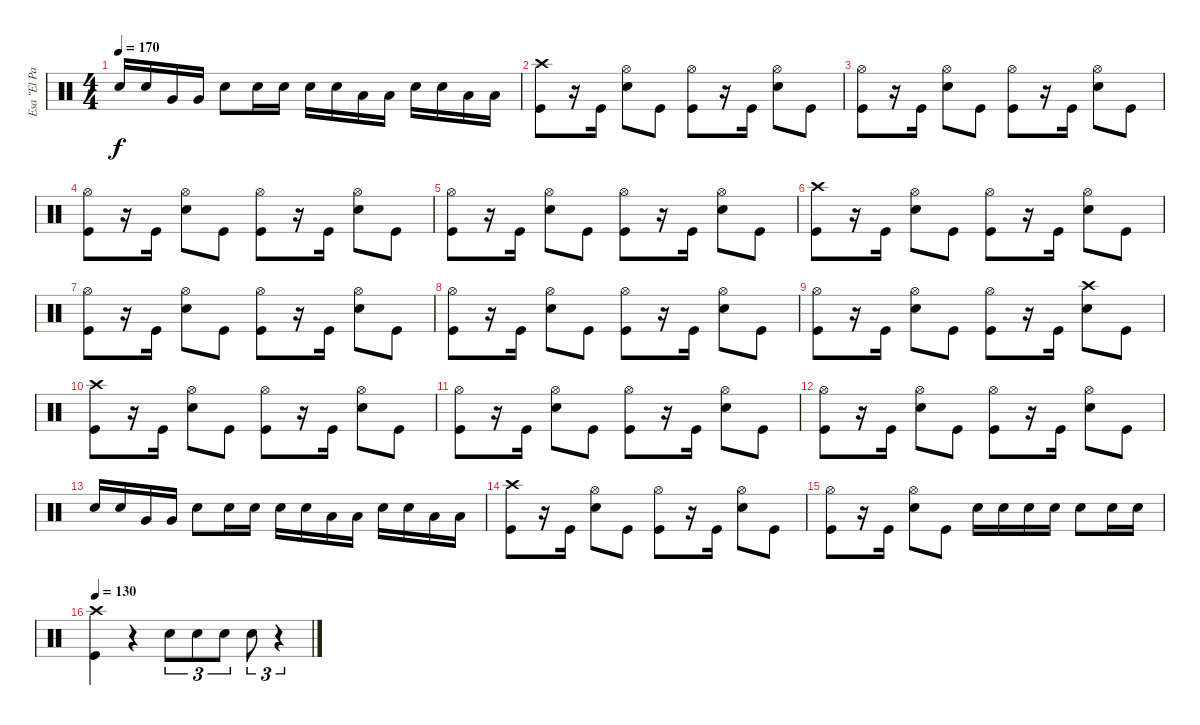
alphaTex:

\track ("Esa \"El Pasaderia\" Palosaari" "Esa \"El Pa") {instrument percussion}
\staff {score}
\articulation defaults
\ts (4 4)
\tempo 170
\clef neutral
\ks c "Snare (hit) 2".16{dy f} "Snare (hit) 2".16 "Very Low Tom (hit)".16 "Very Low Tom (hit)".16 "Snare (hit) 2".8 "Snare (hit) 2".16 "Snare (hit) 2".16 "Snare (hit) 2".16 "Snare (hit) 2".16 "Low Tom (hit)".16 "Low Tom (hit)".16 "Snare (hit) 2".16 "Snare (hit) 2".16 "Low Tom (hit)".16 "Low Tom (hit)".16
|
("Crash high (hit)" "Kick (hit)").8 r.16 "Kick (hit)".16 ("Hi-Hat (open)" "Snare (hit) 2").8 "Kick (hit)".8 ("Hi-Hat (open)" "Kick (hit)").8 r.16 "Kick (hit)".16 ("Hi-Hat (open)" "Snare (hit) 2").8 "Kick (hit)".8 |
("Hi-Hat (open)" "Kick (hit)").8 r.16 "Kick (hit)".16 ("Hi-Hat (open)" "Snare (hit) 2").8 "Kick (hit)".8 ("Hi-Hat (open)" "Kick (hit)").8 r.16 "Kick (hit)".16 ("Hi-Hat (open)" "Snare (hit) 2").8 "Kick (hit)".8 |
("Hi-Hat (open)" "Kick (hit)").8 r.16 "Kick (hit)".16 ("Hi-Hat (open)" "Snare (hit) 2").8 "Kick (hit)".8 ("Hi-Hat (open)" "Kick (hit)").8 r.16 "Kick (hit)".16 ("Hi-Hat (open)" "Snare (hit) 2").8 "Kick (hit)".8 |
("Hi-Hat (open)" "Kick (hit)").8 r.16 "Kick (hit)".16 ("Hi-Hat (open)" "Snare (hit) 2").8 "Kick (hit)".8 ("Hi-Hat (open)" "Kick (hit)").8 r.16 "Kick (hit)".16 ("Hi-Hat (open)" "Snare (hit) 2").8 "Kick (hit)".8 |
("Crash high (hit)" "Kick (hit)").8 r.16 "Kick (hit)".16 ("Hi-Hat (open)" "Snare (hit) 2").8 "Kick (hit)".8 ("Hi-Hat (open)" "Kick (hit)").8 r.16 "Kick (hit)".16 ("Hi-Hat (open)" "Snare (hit) 2").8 "Kick (hit)".8 |
("Hi-Hat (open)" "Kick (hit)").8 r.16 "Kick (hit)".16 ("Hi-Hat (open)" "Snare (hit) 2").8 "Kick (hit)".8 ("Hi-Hat (open)" "Kick (hit)").8 r.16 "Kick (hit)".16 ("Hi-Hat (open)" "Snare (hit) 2").8 "Kick (hit)".8 |
("Hi-Hat (open)" "Kick (hit)").8 r.16 "Kick (hit)".16 ("Hi-Hat (open)" "Snare (hit) 2").8 "Kick (hit)".8 ("Hi-Hat (open)" "Kick (hit)").8 r.16 "Kick (hit)".16 ("Hi-Hat (open)" "Snare (hit) 2").8 "Kick (hit)".8 |
("Hi-Hat (open)" "Kick (hit)").8 r.16 "Kick (hit)".16 ("Hi-Hat (open)" "Snare (hit) 2").8 "Kick (hit)".8 ("Hi-Hat (open)" "Kick (hit)").8 r.16 "Kick (hit)".16 ("Crash high (hit)" "Snare (hit) 2").8 "Kick (hit)".8 |
("Crash high (hit)" "Kick (hit)").8 r.16 "Kick (hit)".16 ("Hi-Hat (open)" "Snare (hit) 2").8 "Kick (hit)".8 ("Hi-Hat (open)" "Kick (hit)").8 r.16 "Kick (hit)".16 ("Hi-Hat (open)" "Snare (hit) 2").8 "Kick (hit)".8 |
("Hi-Hat (open)" "Kick (hit)").8 r.16 "Kick (hit)".16 ("Hi-Hat (open)" "Snare (hit) 2").8 "Kick (hit)".8 ("Hi-Hat (open)" "Kick (hit)").8 r.16 "Kick (hit)".16 ("Hi-Hat (open)" "Snare (hit) 2").8 "Kick (hit)".8 |
("Hi-Hat (open)" "Kick (hit)").8 r.16 "Kick (hit)".16 ("Hi-Hat (open)" "Snare (hit) 2").8 "Kick (hit)".8 ("Hi-Hat (open)" "Kick (hit)").8 r.16 "Kick (hit)".16 ("Hi-Hat (open)" "Snare (hit) 2").8 "Kick (hit)".8 |
"Snare (hit) 2".16 "Snare (hit) 2".16 "Very Low Tom (hit)".16 "Very Low Tom (hit)".16 "Snare (hit) 2".8 "Snare (hit) 2".16 "Snare (hit) 2".16 "Snare (hit) 2".16 "Snare (hit) 2".16 "Low Tom (hit)".16 "Low Tom (hit)".16 "Snare (hit) 2".16 "Snare (hit) 2".16 "Low Tom (hit)".16 "Low Tom (hit)".16 |
("Crash high (hit)" "Kick (hit)").8 r.16 "Kick (hit)".16 ("Hi-Hat (open)" "Snare (hit) 2").8 "Kick (hit)".8 ("Hi-Hat (open)" "Kick (hit)").8 r.16 "Kick (hit)".16 ("Hi-Hat (open)" "Snare (hit) 2").8 "Kick (hit)".8 |
("Hi-Hat (open)" "Kick (hit)").8 r.16 "Kick (hit)".16 ("Hi-Hat (open)" "Snare (hit) 2").8 "Kick (hit)".8 "Snare (hit) 2".16 "Snare (hit) 2".16 "Snare (hit) 2".16 "Snare (hit) 2".16 "Snare (hit) 2".8 "Snare (hit) 2".16 "Snare (hit) 2".16 |
\tempo 130
("Crash high (hit)" "Kick (hit)").4 r.4 "Snare (hit) 2".8{tu (3 2)} "Snare (hit) 2".8{tu (3 2)} "Snare (hit) 2".8{tu (3 2)} "Snare (hit) 2".8{tu (3 2)} r.4{tu (3 2)}
